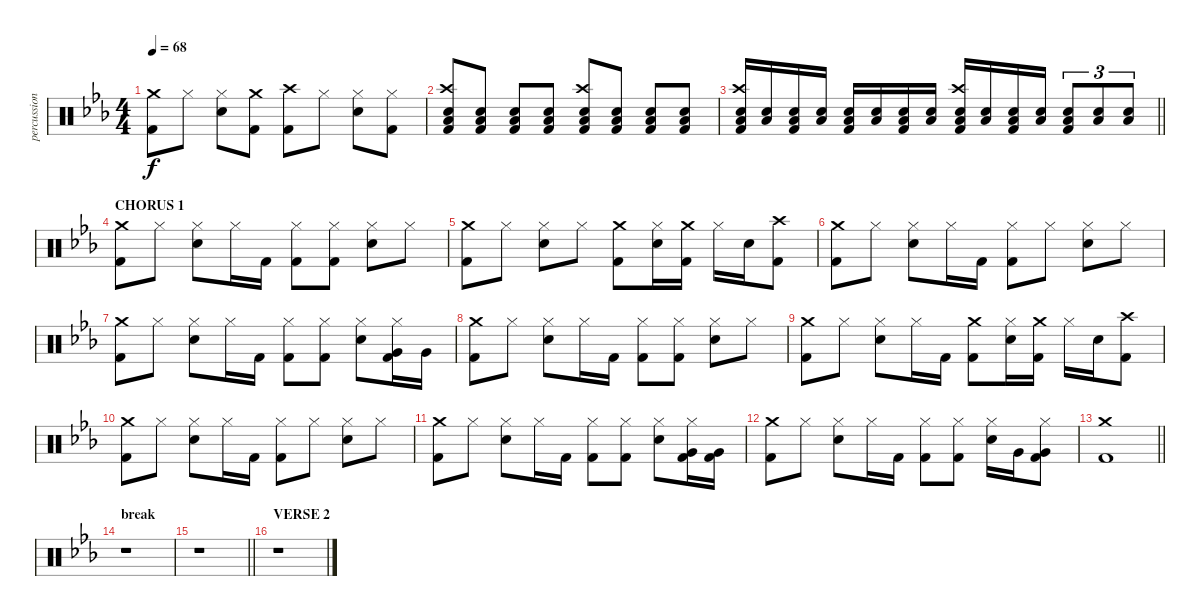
\track ("percussion" "percussion") {instrument percussion}
\staff {score}
\articulation defaults
\ts (4 4)
\tempo 68
\clef neutral
\ks cminor
("Crash medium (hit)" "Kick (hit) 2").8{dy f} "Hi-Hat (closed)".8 ("Snare (hit) 2" "Hi-Hat (closed)").8 ("Crash medium (hit)" "Kick (hit) 2").8 ("Crash high (hit)" "Kick (hit) 2").8 "Hi-Hat (closed)".8 ("Snare (hit) 2" "Hi-Hat (closed)").8 ("Hi-Hat (closed)" "Kick (hit) 2").8 |
("Crash high (hit)" "Low Tom (hit)" "Snare (hit) 2" "Kick (hit) 2").8 ("Low Tom (hit)" "Snare (hit) 2" "Kick (hit) 2").8 ("Low Tom (hit)" "Snare (hit) 2" "Kick (hit) 2").8 ("Low Tom (hit)" "Snare (hit) 2" "Kick (hit) 2").8 ("Crash high (hit)" "Low Tom (hit)" "Snare (hit) 2" "Kick (hit) 2").8 ("Low Tom (hit)" "Snare (hit) 2" "Kick (hit) 2").8 ("Low Tom (hit)" "Snare (hit) 2" "Kick (hit) 2").8 ("Low Tom (hit)" "Snare (hit) 2" "Kick (hit) 2").8 |
\barLineRight lightlight
("Crash high (hit)" "Low Tom (hit)" "Snare (hit) 2" "Kick (hit) 2").16 ("Low Tom (hit)" "Snare (hit) 2").16 ("Low Tom (hit)" "Snare (hit) 2" "Kick (hit) 2").16 ("Low Tom (hit)" "Snare (hit) 2").16 ("Low Tom (hit)" "Snare (hit) 2" "Kick (hit) 2").16 ("Low Tom (hit)" "Snare (hit) 2").16 ("Low Tom (hit)" "Snare (hit) 2" "Kick (hit) 2").16 ("Low Tom (hit)" "Snare (hit) 2").16 ("Crash high (hit)" "Low Tom (hit)" "Snare (hit) 2" "Kick (hit) 2").16 ("Low Tom (hit)" "Snare (hit) 2").16 ("Low Tom (hit)" "Snare (hit) 2" "Kick (hit) 2").16 ("Low Tom (hit)" "Snare (hit) 2").16 ("Low Tom (hit)" "Snare (hit) 2" "Kick (hit) 2").8{tu (3 2)} ("Low Tom (hit)" "Snare (hit) 2").8{tu (3 2)} ("Low Tom (hit)" "Snare (hit) 2").8{tu (3 2)} |
\section ("" "CHORUS 1")
("Crash medium (hit)" "Kick (hit) 2").8 "Hi-Hat (closed)".8 ("Snare (hit) 2" "Hi-Hat (closed)").8 "Hi-Hat (closed)".16 "Kick (hit) 2".16 ("Hi-Hat (closed)" "Kick (hit) 2").8 ("Hi-Hat (closed)" "Kick (hit) 2").8 ("Snare (hit) 2" "Hi-Hat (closed)").8 "Hi-Hat (closed)".8 |
("Crash medium (hit)" "Kick (hit) 2").8 "Hi-Hat (closed)".8 ("Snare (hit) 2" "Hi-Hat (closed)").8 "Hi-Hat (closed)".8 ("Crash medium (hit)" "Kick (hit) 2").8 ("Snare (hit) 2" "Hi-Hat (closed)").16 ("Crash medium (hit)" "Kick (hit) 2").16 "Hi-Hat (closed)".16 "Snare (hit) 2".16 ("Crash high (hit)" "Kick (hit) 2").8 |
("Crash medium (hit)" "Kick (hit) 2").8 "Hi-Hat (closed)".8 ("Snare (hit) 2" "Hi-Hat (closed)").8 "Hi-Hat (closed)".16 "Kick (hit) 2".16 ("Hi-Hat (closed)" "Kick (hit) 2").8 "Hi-Hat (closed)".8 ("Snare (hit) 2" "Hi-Hat (closed)").8 "Hi-Hat (closed)".8 |
("Crash medium (hit)" "Kick (hit) 2").8 "Hi-Hat (closed)".8 ("Snare (hit) 2" "Hi-Hat (closed)").8 "Hi-Hat (closed)".16 "Kick (hit) 2".16 ("Hi-Hat (closed)" "Kick (hit) 2").8 ("Hi-Hat (closed)" "Kick (hit) 2").8 ("Snare (hit) 2" "Hi-Hat (closed)").8 ("Very Low Tom (hit)" "Hi-Hat (closed)" "Kick (hit) 2").16 "Very Low Tom (hit)".16 |
("Crash medium (hit)" "Kick (hit) 2").8 "Hi-Hat (closed)".8 ("Snare (hit) 2" "Hi-Hat (closed)").8 "Hi-Hat (closed)".16 "Kick (hit) 2".16 ("Hi-Hat (closed)" "Kick (hit) 2").8 ("Hi-Hat (closed)" "Kick (hit) 2").8 ("Snare (hit) 2" "Hi-Hat (closed)").8 "Hi-Hat (closed)".8 |
("Crash medium (hit)" "Kick (hit) 2").8 "Hi-Hat (closed)".8 ("Snare (hit) 2" "Hi-Hat (closed)").8 "Hi-Hat (closed)".16 "Kick (hit) 2".16 ("Crash medium (hit)" "Kick (hit) 2").8 ("Snare (hit) 2" "Hi-Hat (closed)").16 ("Crash medium (hit)" "Kick (hit) 2").16 "Hi-Hat (closed)".16 "Snare (hit) 2".16 ("Crash high (hit)" "Kick (hit) 2").8 |
("Crash medium (hit)" "Kick (hit) 2").8 "Hi-Hat (closed)".8 ("Snare (hit) 2" "Hi-Hat (closed)").8 "Hi-Hat (closed)".16 "Kick (hit) 2".16 ("Hi-Hat (closed)" "Kick (hit) 2").8 "Hi-Hat (closed)".8 ("Snare (hit) 2" "Hi-Hat (closed)").8 "Hi-Hat (closed)".8 |
("Crash medium (hit)" "Kick (hit) 2").8 "Hi-Hat (closed)".8 ("Snare (hit) 2" "Hi-Hat (closed)").8 "Hi-Hat (closed)".16 "Kick (hit) 2".16 ("Hi-Hat (closed)" "Kick (hit) 2").8 ("Hi-Hat (closed)" "Kick (hit) 2").8 ("Snare (hit) 2" "Hi-Hat (closed)").8 ("Very Low Tom (hit)" "Hi-Hat (closed)" "Kick (hit) 2").16 ("Very Low Tom (hit)" "Kick (hit) 2").16 |
("Crash medium (hit)" "Kick (hit) 2").8 "Hi-Hat (closed)".8 ("Snare (hit) 2" "Hi-Hat (closed)").8 "Hi-Hat (closed)".16 "Kick (hit) 2".16 ("Hi-Hat (closed)" "Kick (hit) 2").8 ("Hi-Hat (closed)" "Kick (hit) 2").8 ("Snare (hit) 2" "Hi-Hat (closed)").16 "Very Low Tom (hit)".16 ("Very Low Tom (hit)" "Hi-Hat (closed)" "Kick (hit) 2").8 |
\barLineRight lightlight
("Crash medium (hit)" "Kick (hit) 2").1 |
\section ("" "break")
r.1 |
\barLineRight lightlight
r.1 |
\section ("" "VERSE 2")
r.1
